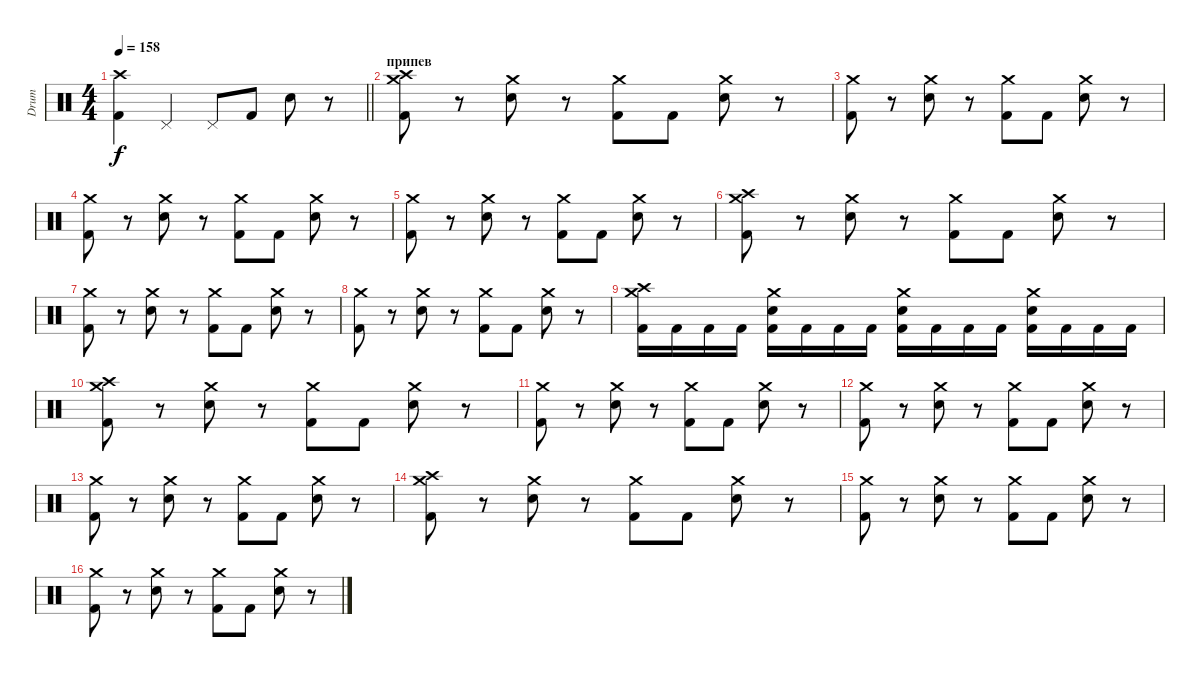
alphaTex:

\track ("Drum" "Drum") {instrument percussion}
\staff {score}
\articulation defaults
\ts (4 4)
\tempo 158
\clef neutral
\barLineRight lightlight
\ks c
("Crash high (hit)" "Kick (hit) 2").4{dy f} "Pedal Hi-Hat (hit)".4 "Pedal Hi-Hat (hit)".8 "Kick (hit) 2".8 "Snare (hit) 2".8 r.8 |
\section ("" "припев")
("Crash high (hit)" "Crash medium (hit)" "Kick (hit) 2").8 r.8 ("Crash medium (hit)" "Snare (hit) 2").8 r.8 ("Crash medium (hit)" "Kick (hit) 2").8 "Kick (hit) 2".8 ("Crash medium (hit)" "Snare (hit) 2").8 r.8 |
("Crash medium (hit)" "Kick (hit) 2").8 r.8 ("Crash medium (hit)" "Snare (hit) 2").8 r.8 ("Crash medium (hit)" "Kick (hit) 2").8 "Kick (hit) 2".8 ("Crash medium (hit)" "Snare (hit) 2").8 r.8 |
("Crash medium (hit)" "Kick (hit) 2").8 r.8 ("Crash medium (hit)" "Snare (hit) 2").8 r.8 ("Crash medium (hit)" "Kick (hit) 2").8 "Kick (hit) 2".8 ("Crash medium (hit)" "Snare (hit) 2").8 r.8 |
("Crash medium (hit)" "Kick (hit) 2").8 r.8 ("Crash medium (hit)" "Snare (hit) 2").8 r.8 ("Crash medium (hit)" "Kick (hit) 2").8 "Kick (hit) 2".8 ("Crash medium (hit)" "Snare (hit) 2").8 r.8 |
("Crash high (hit)" "Crash medium (hit)" "Kick (hit) 2").8 r.8 ("Crash medium (hit)" "Snare (hit) 2").8 r.8 ("Crash medium (hit)" "Kick (hit) 2").8 "Kick (hit) 2".8 ("Crash medium (hit)" "Snare (hit) 2").8 r.8 |
("Crash medium (hit)" "Kick (hit) 2").8 r.8 ("Crash medium (hit)" "Snare (hit) 2").8 r.8 ("Crash medium (hit)" "Kick (hit) 2").8 "Kick (hit) 2".8 ("Crash medium (hit)" "Snare (hit) 2").8 r.8 |
("Crash medium (hit)" "Kick (hit) 2").8 r.8 ("Crash medium (hit)" "Snare (hit) 2").8 r.8 ("Crash medium (hit)" "Kick (hit) 2").8 "Kick (hit) 2".8 ("Crash medium (hit)" "Snare (hit) 2").8 r.8 |
("Crash high (hit)" "Crash medium (hit)" "Kick (hit) 2").16 "Kick (hit) 2".16 "Kick (hit) 2".16 "Kick (hit) 2".16 ("Crash medium (hit)" "Snare (hit) 2" "Kick (hit) 2").16 "Kick (hit) 2".16 "Kick (hit) 2".16 "Kick (hit) 2".16 ("Crash medium (hit)" "Snare (hit) 2" "Kick (hit) 2").16 "Kick (hit) 2".16 "Kick (hit) 2".16 "Kick (hit) 2".16 ("Crash medium (hit)" "Snare (hit) 2" "Kick (hit) 2").16 "Kick (hit) 2".16 "Kick (hit) 2".16 "Kick (hit) 2".16 |
("Crash high (hit)" "Crash medium (hit)" "Kick (hit) 2").8 r.8 ("Crash medium (hit)" "Snare (hit) 2").8 r.8 ("Crash medium (hit)" "Kick (hit) 2").8 "Kick (hit) 2".8 ("Crash medium (hit)" "Snare (hit) 2").8 r.8 |
("Crash medium (hit)" "Kick (hit) 2").8 r.8 ("Crash medium (hit)" "Snare (hit) 2").8 r.8 ("Crash medium (hit)" "Kick (hit) 2").8 "Kick (hit) 2".8 ("Crash medium (hit)" "Snare (hit) 2").8 r.8 |
("Crash medium (hit)" "Kick (hit) 2").8 r.8 ("Crash medium (hit)" "Snare (hit) 2").8 r.8 ("Crash medium (hit)" "Kick (hit) 2").8 "Kick (hit) 2".8 ("Crash medium (hit)" "Snare (hit) 2").8 r.8 |
("Crash medium (hit)" "Kick (hit) 2").8 r.8 ("Crash medium (hit)" "Snare (hit) 2").8 r.8 ("Crash medium (hit)" "Kick (hit) 2").8 "Kick (hit) 2".8 ("Crash medium (hit)" "Snare (hit) 2").8 r.8 |
("Crash high (hit)" "Crash medium (hit)" "Kick (hit) 2").8 r.8 ("Crash medium (hit)" "Snare (hit) 2").8 r.8 ("Crash medium (hit)" "Kick (hit) 2").8 "Kick (hit) 2".8 ("Crash medium (hit)" "Snare (hit) 2").8 r.8 |
("Crash medium (hit)" "Kick (hit) 2").8 r.8 ("Crash medium (hit)" "Snare (hit) 2").8 r.8 ("Crash medium (hit)" "Kick (hit) 2").8 "Kick (hit) 2".8 ("Crash medium (hit)" "Snare (hit) 2").8 r.8 |
("Crash medium (hit)" "Kick (hit) 2").8 r.8 ("Crash medium (hit)" "Snare (hit) 2").8 r.8 ("Crash medium (hit)" "Kick (hit) 2").8 "Kick (hit) 2".8 ("Crash medium (hit)" "Snare (hit) 2").8 r.8
